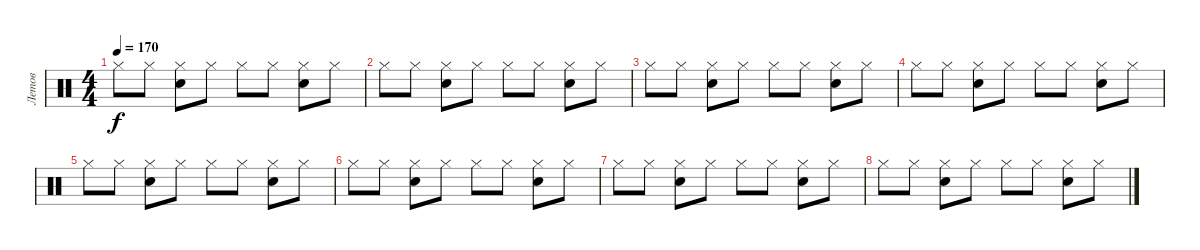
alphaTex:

\track ("Летов" "Летов") {instrument percussion}
\staff {score}
\articulation defaults
\ts (4 4)
\tempo 170
\clef neutral
\ks c "Hi-Hat (closed)".8{dy f} "Hi-Hat (closed)".8
("Hi-Hat (closed)" "Electric Snare (hit)").8 "Hi-Hat (closed)".8 "Hi-Hat (closed)".8 "Hi-Hat (closed)".8 ("Hi-Hat (closed)" "Electric Snare (hit)").8 "Hi-Hat (closed)".8 |
"Hi-Hat (closed)".8 "Hi-Hat (closed)".8 ("Hi-Hat (closed)" "Electric Snare (hit)").8 "Hi-Hat (closed)".8 "Hi-Hat (closed)".8 "Hi-Hat (closed)".8 ("Hi-Hat (closed)" "Electric Snare (hit)").8 "Hi-Hat (closed)".8 |
"Hi-Hat (closed)".8 "Hi-Hat (closed)".8 ("Hi-Hat (closed)" "Electric Snare (hit)").8 "Hi-Hat (closed)".8 "Hi-Hat (closed)".8 "Hi-Hat (closed)".8 ("Hi-Hat (closed)" "Electric Snare (hit)").8 "Hi-Hat (closed)".8 |
"Hi-Hat (closed)".8 "Hi-Hat (closed)".8 ("Hi-Hat (closed)" "Electric Snare (hit)").8 "Hi-Hat (closed)".8 "Hi-Hat (closed)".8 "Hi-Hat (closed)".8 ("Hi-Hat (closed)" "Electric Snare (hit)").8 "Hi-Hat (closed)".8 |
"Hi-Hat (closed)".8 "Hi-Hat (closed)".8 ("Hi-Hat (closed)" "Electric Snare (hit)").8 "Hi-Hat (closed)".8 "Hi-Hat (closed)".8 "Hi-Hat (closed)".8 ("Hi-Hat (closed)" "Electric Snare (hit)").8 "Hi-Hat (closed)".8 |
"Hi-Hat (closed)".8 "Hi-Hat (closed)".8 ("Hi-Hat (closed)" "Electric Snare (hit)").8 "Hi-Hat (closed)".8 "Hi-Hat (closed)".8 "Hi-Hat (closed)".8 ("Hi-Hat (closed)" "Electric Snare (hit)").8 "Hi-Hat (closed)".8 |
"Hi-Hat (closed)".8 "Hi-Hat (closed)".8 ("Hi-Hat (closed)" "Electric Snare (hit)").8 "Hi-Hat (closed)".8 "Hi-Hat (closed)".8 "Hi-Hat (closed)".8 ("Hi-Hat (closed)" "Electric Snare (hit)").8 "Hi-Hat (closed)".8 |
"Hi-Hat (closed)".8 "Hi-Hat (closed)".8 ("Hi-Hat (closed)" "Electric Snare (hit)").8 "Hi-Hat (closed)".8 "Hi-Hat (closed)".8 "Hi-Hat (closed)".8 ("Hi-Hat (closed)" "Electric Snare (hit)").8 "Hi-Hat (closed)".8
